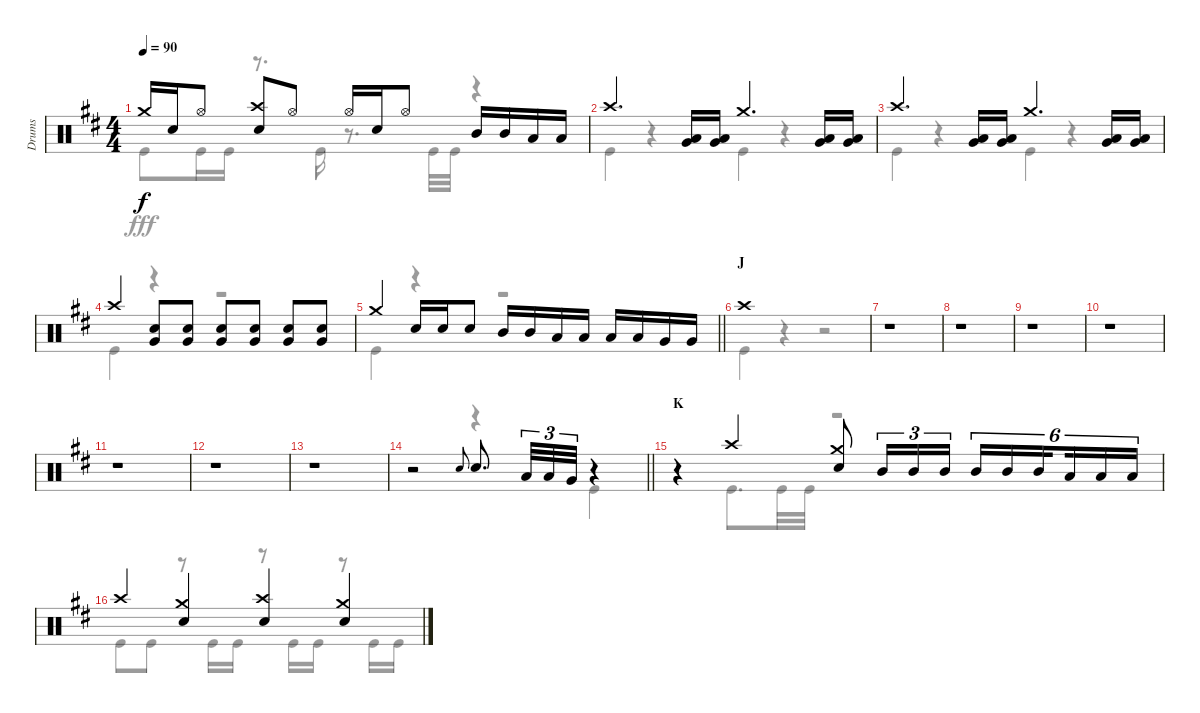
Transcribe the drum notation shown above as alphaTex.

\track ("Drums" "Drums") {instrument percussion}
\staff {score}
\articulation defaults
\voice
\ts (4 4)
\tempo 90
\clef neutral
\ks d "Crash medium (hit)".16{dy f} "Snare (hit) 2".16 "Hi-Hat (open)".8
("Crash high (hit)" "Snare (hit) 2").8 "Hi-Hat (open)".8 "Hi-Hat (open)".16 "Snare (hit) 2".16 "Hi-Hat (open)".8 "Mid Tom (hit)".16 "Mid Tom (hit)".16 "Low Tom (hit)".16 "Low Tom (hit)".16 |
"Crash high (hit)".4{d} ("Low Tom (hit)" "Very Low Tom (hit)").16 ("Low Tom (hit)" "Very Low Tom (hit)").16 "Crash medium (hit)".4{d} ("Low Tom (hit)" "Very Low Tom (hit)").16 ("Low Tom (hit)" "Very Low Tom (hit)").16 |
"Crash high (hit)".4{d} ("Low Tom (hit)" "Very Low Tom (hit)").16 ("Low Tom (hit)" "Very Low Tom (hit)").16 "Crash medium (hit)".4{d} ("Low Tom (hit)" "Very Low Tom (hit)").16 ("Low Tom (hit)" "Very Low Tom (hit)").16 |
"Crash high (hit)".4 ("Snare (hit) 2" "Very Low Tom (hit)").8 ("Snare (hit) 2" "Very Low Tom (hit)").8 ("Snare (hit) 2" "Very Low Tom (hit)").8 ("Snare (hit) 2" "Very Low Tom (hit)").8 ("Snare (hit) 2" "Very Low Tom (hit)").8 ("Snare (hit) 2" "Very Low Tom (hit)").8 |
\barLineRight lightlight "Crash medium (hit)".4 "Snare (hit) 2".16 "Snare (hit) 2".16 "Snare (hit) 2".8 "Mid Tom (hit)".16 "Mid Tom (hit)".16 "Low Tom (hit)".16 "Low Tom (hit)".16 "Low Tom (hit)".16 "Low Tom (hit)".16 "Very Low Tom (hit)".16 "Very Low Tom (hit)".16
|
\section ("" "J")
"Crash high (hit)".1 |
r.1 |
r.1 |
r.1 |
r.1 |
r.1 |
r.1 |
r.1 |
\barLineRight lightlight
r.2 "Snare (hit) 2".8{gr onbeat} "Snare (hit) 2".8{d} "Low Tom (hit)".32{tu (3 2)} "Low Tom (hit)".32{tu (3 2)} "Very Low Tom (hit)".32{tu (3 2)} r.4 |
\section ("" "K")
r.4 "Crash high (hit)".4 ("Crash medium (hit)" "Snare (hit) 2").8 "Mid Tom (hit)".16{tu (3 2)} "Mid Tom (hit)".16{tu (3 2)} "Mid Tom (hit)".16{tu (3 2)} "Mid Tom (hit)".16{tu (6 4)} "Mid Tom (hit)".16{tu (6 4)} "Mid Tom (hit)".16{tu (6 4) beam splitsecondary} "Low Tom (hit)".16{tu (6 4)} "Low Tom (hit)".16{tu (6 4)} "Low Tom (hit)".16{tu (6 4)} |
"Crash high (hit)".4 ("Crash medium (hit)" "Snare (hit) 2").4 ("Crash high (hit)" "Snare (hit) 2").4 ("Crash medium (hit)" "Snare (hit) 2").4
\voice
\clef neutral
\ottava regular
\simile none
\ks d "Kick (hit)".8{dy fff} "Kick (hit)".16 "Kick (hit)".16
r.8{d} "Kick (hit)".16 r.8{d} "Kick (hit)".32 "Kick (hit)".32 r.4 |
"Kick (hit)".4 r.4 "Kick (hit)".4 r.4 |
"Kick (hit)".4 r.4 "Kick (hit)".4 r.4 |
"Kick (hit)".4 r.4 r.2 |
\barLineRight lightlight "Kick (hit)".4
r.4 r.2 |
"Kick (hit)".4 r.4 r.2 |
r.1 |
r.1 |
r.1 |
r.1 |
r.1 |
r.1 |
r.1 |
\barLineRight lightlight
r.2 r.4 "Kick (hit)".4 |
r.4 "Kick (hit)".8{d} "Kick (hit)".32 "Kick (hit)".32 r.2 |
"Kick (hit)".8 "Kick (hit)".8 r.8 "Kick (hit)".16 "Kick (hit)".16 r.8 "Kick (hit)".16 "Kick (hit)".16 r.8 "Kick (hit)".16 "Kick (hit)".16
